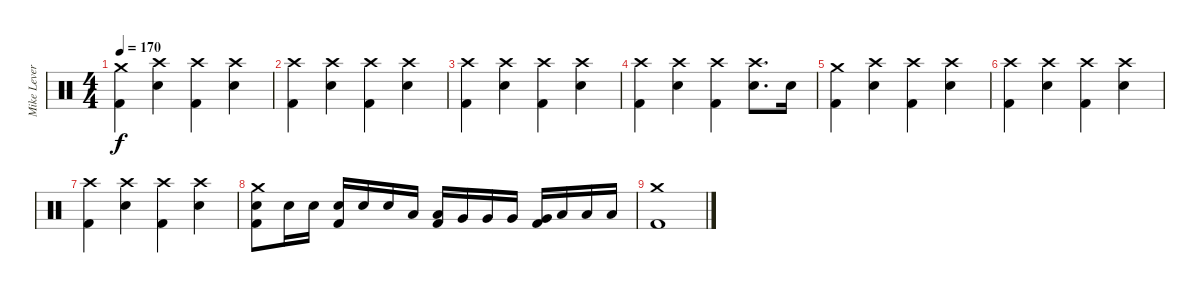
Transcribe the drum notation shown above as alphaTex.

\track ("Mike Leverence - Drums" "Mike Lever") {instrument percussion}
\staff {score}
\articulation defaults
\ts (4 4)
\tempo 170
\clef neutral
\ks c
("Crash medium (hit)" "Kick (hit) 2").4{dy f} ("Crash high (hit)" "Electric Snare (hit)").4 ("Crash high (hit)" "Kick (hit) 2").4 ("Crash high (hit)" "Electric Snare (hit)").4 |
("Crash high (hit)" "Kick (hit) 2").4 ("Crash high (hit)" "Electric Snare (hit)").4 ("Crash high (hit)" "Kick (hit) 2").4 ("Crash high (hit)" "Electric Snare (hit)").4 |
("Crash high (hit)" "Kick (hit) 2").4 ("Crash high (hit)" "Electric Snare (hit)").4 ("Crash high (hit)" "Kick (hit) 2").4 ("Crash high (hit)" "Electric Snare (hit)").4 |
("Crash high (hit)" "Kick (hit) 2").4 ("Crash high (hit)" "Electric Snare (hit)").4 ("Crash high (hit)" "Kick (hit) 2").4 ("Crash high (hit)" "Electric Snare (hit)").8{d} "Electric Snare (hit)".16 |
("Crash medium (hit)" "Kick (hit) 2").4 ("Crash high (hit)" "Electric Snare (hit)").4 ("Crash high (hit)" "Kick (hit) 2").4 ("Crash high (hit)" "Electric Snare (hit)").4 |
("Crash high (hit)" "Kick (hit) 2").4 ("Crash high (hit)" "Electric Snare (hit)").4 ("Crash high (hit)" "Kick (hit) 2").4 ("Crash high (hit)" "Electric Snare (hit)").4 |
("Crash high (hit)" "Kick (hit) 2").4 ("Crash high (hit)" "Electric Snare (hit)").4 ("Crash high (hit)" "Kick (hit) 2").4 ("Crash high (hit)" "Electric Snare (hit)").4 |
("Crash medium (hit)" "Electric Snare (hit)" "Kick (hit) 2").8 "Electric Snare (hit)".16 "Electric Snare (hit)".16 ("Electric Snare (hit)" "Kick (hit) 2").16 "Electric Snare (hit)".16 "Electric Snare (hit)".16 "Low Tom (hit)".16 ("Low Tom (hit)" "Kick (hit) 2").16 "Very Low Tom (hit)".16 "Very Low Tom (hit)".16 "Very Low Tom (hit)".16 ("Very Low Tom (hit)" "Kick (hit) 2").16 "Low Floor Tom (hit)".16 "Low Floor Tom (hit)".16 "Low Floor Tom (hit)".16 |
("Crash medium (hit)" "Kick (hit) 2").1
